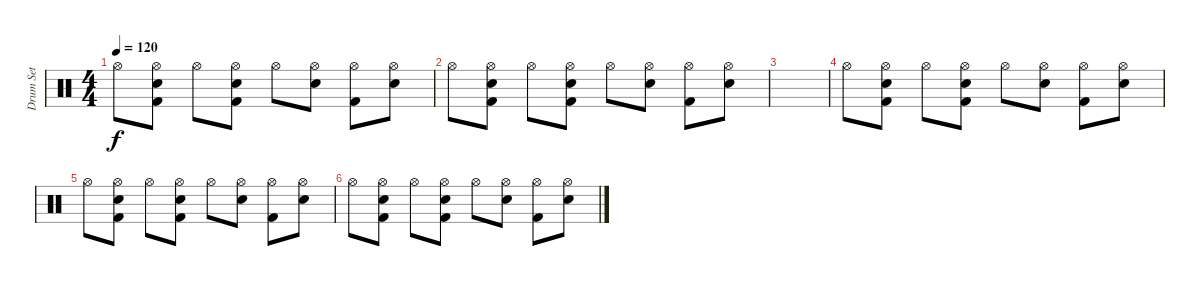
\track ("Drum Set" "Drum Set") {instrument percussion}
\staff {score}
\articulation defaults
\ts (4 4)
\tempo 120
\clef neutral
\ks c "Hi-Hat (open)".8{dy f}
("Hi-Hat (open)" "Snare (hit) 2" "Kick (hit) 2").8 "Hi-Hat (open)".8 ("Hi-Hat (open)" "Snare (hit) 2" "Kick (hit) 2").8 "Hi-Hat (open)".8 ("Hi-Hat (open)" "Snare (hit) 2").8 ("Hi-Hat (open)" "Kick (hit) 2").8 ("Hi-Hat (open)" "Snare (hit) 2").8 |
"Hi-Hat (open)".8 ("Hi-Hat (open)" "Snare (hit) 2" "Kick (hit) 2").8 "Hi-Hat (open)".8 ("Hi-Hat (open)" "Snare (hit) 2" "Kick (hit) 2").8 "Hi-Hat (open)".8 ("Hi-Hat (open)" "Snare (hit) 2").8 ("Hi-Hat (open)" "Kick (hit) 2").8 ("Hi-Hat (open)" "Snare (hit) 2").8 |
|
"Hi-Hat (open)".8 ("Hi-Hat (open)" "Snare (hit) 2" "Kick (hit) 2").8 "Hi-Hat (open)".8 ("Hi-Hat (open)" "Snare (hit) 2" "Kick (hit) 2").8 "Hi-Hat (open)".8 ("Hi-Hat (open)" "Snare (hit) 2").8 ("Hi-Hat (open)" "Kick (hit) 2").8 ("Hi-Hat (open)" "Snare (hit) 2").8 |
"Hi-Hat (open)".8 ("Hi-Hat (open)" "Snare (hit) 2" "Kick (hit) 2").8 "Hi-Hat (open)".8 ("Hi-Hat (open)" "Snare (hit) 2" "Kick (hit) 2").8 "Hi-Hat (open)".8 ("Hi-Hat (open)" "Snare (hit) 2").8 ("Hi-Hat (open)" "Kick (hit) 2").8 ("Hi-Hat (open)" "Snare (hit) 2").8 |
"Hi-Hat (open)".8 ("Hi-Hat (open)" "Snare (hit) 2" "Kick (hit) 2").8 "Hi-Hat (open)".8 ("Hi-Hat (open)" "Snare (hit) 2" "Kick (hit) 2").8 "Hi-Hat (open)".8 ("Hi-Hat (open)" "Snare (hit) 2").8 ("Hi-Hat (open)" "Kick (hit) 2").8 ("Hi-Hat (open)" "Snare (hit) 2").8
